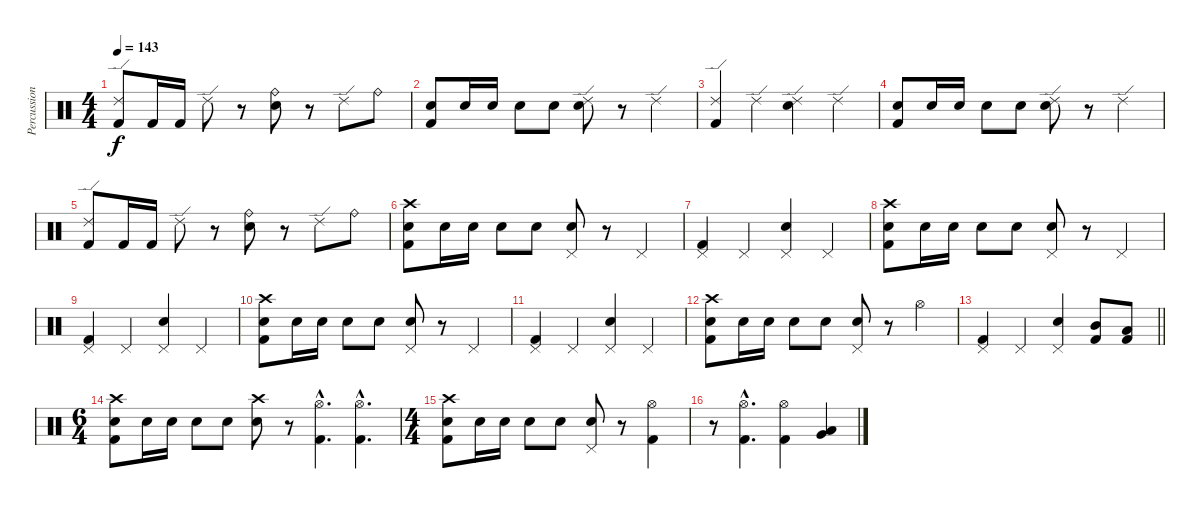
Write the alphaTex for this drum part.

\track ("Percussion" "Percussion") {instrument percussion}
\staff {score}
\articulation defaults
\ts (4 4)
\tempo 143
\clef neutral
\ks c
("Ride (edge) 2" "Kick (hit) 2").8{dy f} "Kick (hit) 2".16 "Kick (hit) 2".16 "Ride (edge) 2".8 r.8 ("Ride (bell)" "Electric Snare (hit)").8 r.8 "Ride (edge) 2".8 "Ride (bell)".8 |
("Electric Snare (hit)" "Kick (hit) 2").8 "Electric Snare (hit)".16 "Electric Snare (hit)".16 "Electric Snare (hit)".8 "Electric Snare (hit)".8 ("Ride (edge) 2" "Electric Snare (hit)").8 r.8 "Ride (edge) 2".4 |
("Ride (edge) 2" "Kick (hit) 2").4 "Ride (edge) 2".4 ("Ride (edge) 2" "Electric Snare (hit)").4 "Ride (edge) 2".4 |
("Electric Snare (hit)" "Kick (hit) 2").8 "Electric Snare (hit)".16 "Electric Snare (hit)".16 "Electric Snare (hit)".8 "Electric Snare (hit)".8 ("Ride (edge) 2" "Electric Snare (hit)").8 r.8 "Ride (edge) 2".4 |
("Ride (edge) 2" "Kick (hit) 2").8 "Kick (hit) 2".16 "Kick (hit) 2".16 "Ride (edge) 2".8 r.8 ("Ride (bell)" "Electric Snare (hit)").8 r.8 "Ride (edge) 2".8 "Ride (bell)".8 |
("Crash high (hit)" "Electric Snare (hit)" "Kick (hit) 2").8 "Electric Snare (hit)".16 "Electric Snare (hit)".16 "Electric Snare (hit)".8 "Electric Snare (hit)".8 ("Pedal Hi-Hat (hit)" "Electric Snare (hit)").8 r.8 "Pedal Hi-Hat (hit)".4 |
("Pedal Hi-Hat (hit)" "Kick (hit) 2").4 "Pedal Hi-Hat (hit)".4 ("Pedal Hi-Hat (hit)" "Electric Snare (hit)").4 "Pedal Hi-Hat (hit)".4 |
("Crash high (hit)" "Electric Snare (hit)" "Kick (hit) 2").8 "Electric Snare (hit)".16 "Electric Snare (hit)".16 "Electric Snare (hit)".8 "Electric Snare (hit)".8 ("Pedal Hi-Hat (hit)" "Electric Snare (hit)").8 r.8 "Pedal Hi-Hat (hit)".4 |
("Pedal Hi-Hat (hit)" "Kick (hit) 2").4 "Pedal Hi-Hat (hit)".4 ("Pedal Hi-Hat (hit)" "Electric Snare (hit)").4 "Pedal Hi-Hat (hit)".4 |
("Crash high (hit)" "Electric Snare (hit)" "Kick (hit) 2").8 "Electric Snare (hit)".16 "Electric Snare (hit)".16 "Electric Snare (hit)".8 "Electric Snare (hit)".8 ("Pedal Hi-Hat (hit)" "Electric Snare (hit)").8 r.8 "Pedal Hi-Hat (hit)".4 |
("Pedal Hi-Hat (hit)" "Kick (hit) 2").4 "Pedal Hi-Hat (hit)".4 ("Pedal Hi-Hat (hit)" "Electric Snare (hit)").4 "Pedal Hi-Hat (hit)".4 |
("Crash high (hit)" "Electric Snare (hit)" "Kick (hit) 2").8 "Electric Snare (hit)".16 "Electric Snare (hit)".16 "Electric Snare (hit)".8 "Electric Snare (hit)".8 ("Pedal Hi-Hat (hit)" "Electric Snare (hit)").8 r.8 "Hi-Hat (open)".4 |
\barLineRight lightlight
("Pedal Hi-Hat (hit)" "Kick (hit) 2").4 "Pedal Hi-Hat (hit)".4 ("Pedal Hi-Hat (hit)" "Electric Snare (hit)").4 ("Mid Tom (hit)" "Kick (hit) 2").8 ("Low Tom (hit)" "Kick (hit) 2").8 |
\ts (6 4)
("Crash high (hit)" "Electric Snare (hit)" "Kick (hit) 2").8 "Electric Snare (hit)".16 "Electric Snare (hit)".16 "Electric Snare (hit)".8 "Electric Snare (hit)".8 ("Crash high (hit)" "Electric Snare (hit)").8 r.8 ("Hi-Hat (open)"{hac} "Kick (hit) 2"{hac}).4{d} ("Hi-Hat (open)"{hac} "Kick (hit) 2"{hac}).4{d} |
\ts (4 4)
("Crash high (hit)" "Electric Snare (hit)" "Kick (hit) 2").8 "Electric Snare (hit)".16 "Electric Snare (hit)".16 "Electric Snare (hit)".8 "Electric Snare (hit)".8 ("Pedal Hi-Hat (hit)" "Electric Snare (hit)").8 r.8 ("Hi-Hat (open)" "Kick (hit) 2").4 |
r.8 ("Hi-Hat (open)"{hac} "Kick (hit) 2"{hac}).4{d} ("Hi-Hat (open)" "Kick (hit) 2").4 ("Low Tom (hit)" "Very Low Tom (hit)").4
